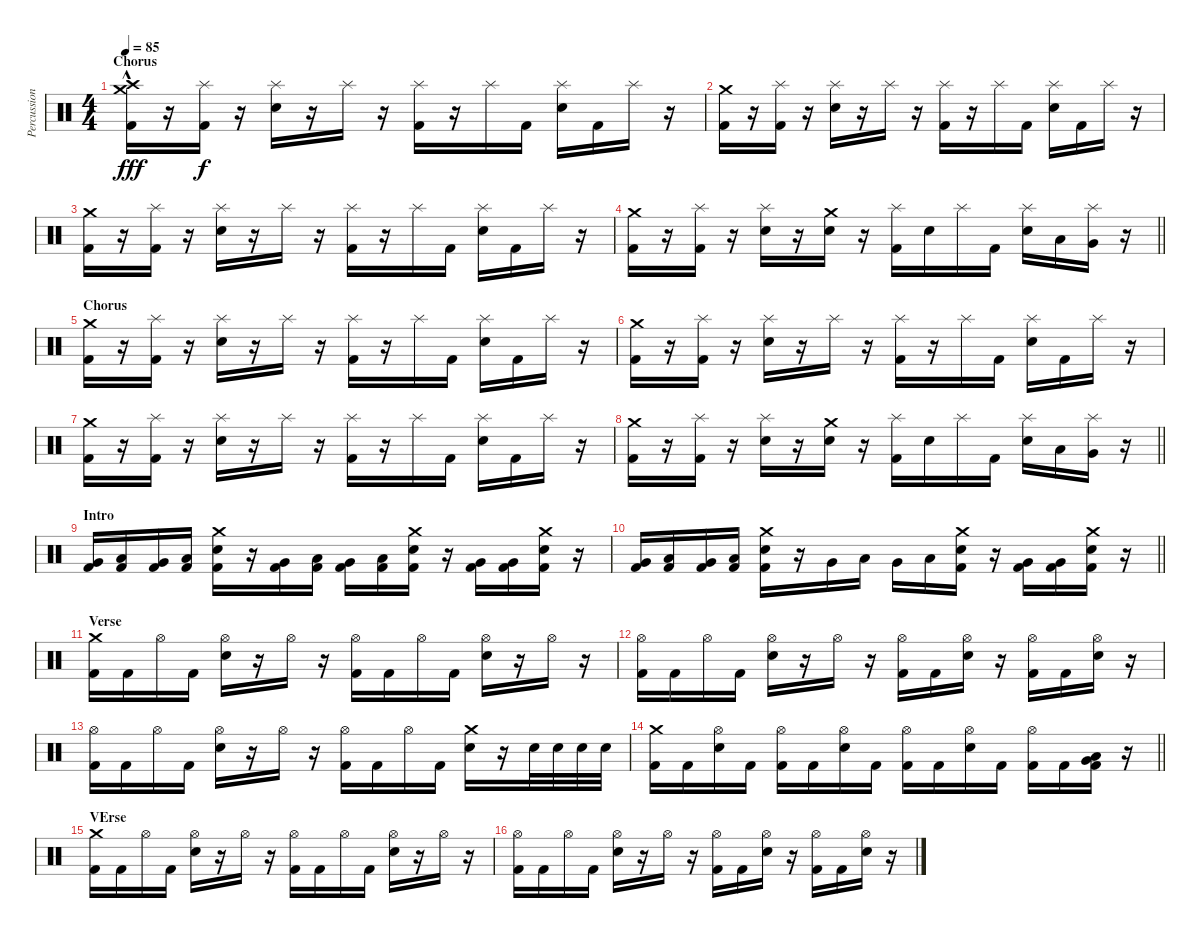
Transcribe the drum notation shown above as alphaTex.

\track ("Percussion" "Percussion") {instrument percussion}
\staff {score}
\articulation defaults
\ts (4 4)
\section ("" "Chorus")
\tempo 85
\clef neutral
\ks c
("Crash medium (hit)"{hac} "Crash high (hit)"{hac} "Kick (hit) 2").16{dy fff} r.16 ("Splash (hit)" "Kick (hit) 2").16{dy f} r.16 ("Splash (hit)" "Electric Snare (hit)").16 r.16 "Splash (hit)".16 r.16 ("Splash (hit)" "Kick (hit) 2").16 r.16 "Splash (hit)".16 "Kick (hit) 2".16 ("Splash (hit)" "Electric Snare (hit)").16 "Kick (hit) 2".16 "Splash (hit)".16 r.16 |
("Crash medium (hit)" "Kick (hit) 2").16 r.16 ("Splash (hit)" "Kick (hit) 2").16 r.16 ("Splash (hit)" "Electric Snare (hit)").16 r.16 "Splash (hit)".16 r.16 ("Splash (hit)" "Kick (hit) 2").16 r.16 "Splash (hit)".16 "Kick (hit) 2".16 ("Splash (hit)" "Electric Snare (hit)").16 "Kick (hit) 2".16 "Splash (hit)".16 r.16 |
("Crash medium (hit)" "Kick (hit) 2").16 r.16 ("Splash (hit)" "Kick (hit) 2").16 r.16 ("Splash (hit)" "Electric Snare (hit)").16 r.16 "Splash (hit)".16 r.16 ("Splash (hit)" "Kick (hit) 2").16 r.16 "Splash (hit)".16 "Kick (hit) 2".16 ("Splash (hit)" "Electric Snare (hit)").16 "Kick (hit) 2".16 "Splash (hit)".16 r.16 |
\barLineRight lightlight
("Crash medium (hit)" "Kick (hit) 2").16 r.16 ("Splash (hit)" "Kick (hit) 2").16 r.16 ("Splash (hit)" "Electric Snare (hit)").16 r.16 ("Crash medium (hit)" "Electric Snare (hit)").16 r.16 ("Splash (hit)" "Kick (hit) 2").16 "Electric Snare (hit)".16 "Splash (hit)".16 "Kick (hit) 2".16 ("Splash (hit)" "Electric Snare (hit)").16 "Low Tom (hit)".16 ("Splash (hit)" "Very Low Tom (hit)").16 r.16 |
\section ("" "Chorus")
("Crash medium (hit)" "Kick (hit) 2").16 r.16 ("Splash (hit)" "Kick (hit) 2").16 r.16 ("Splash (hit)" "Electric Snare (hit)").16 r.16 "Splash (hit)".16 r.16 ("Splash (hit)" "Kick (hit) 2").16 r.16 "Splash (hit)".16 "Kick (hit) 2".16 ("Splash (hit)" "Electric Snare (hit)").16 "Kick (hit) 2".16 "Splash (hit)".16 r.16 |
("Crash medium (hit)" "Kick (hit) 2").16 r.16 ("Splash (hit)" "Kick (hit) 2").16 r.16 ("Splash (hit)" "Electric Snare (hit)").16 r.16 "Splash (hit)".16 r.16 ("Splash (hit)" "Kick (hit) 2").16 r.16 "Splash (hit)".16 "Kick (hit) 2".16 ("Splash (hit)" "Electric Snare (hit)").16 "Kick (hit) 2".16 "Splash (hit)".16 r.16 |
("Crash medium (hit)" "Kick (hit) 2").16 r.16 ("Splash (hit)" "Kick (hit) 2").16 r.16 ("Splash (hit)" "Electric Snare (hit)").16 r.16 "Splash (hit)".16 r.16 ("Splash (hit)" "Kick (hit) 2").16 r.16 "Splash (hit)".16 "Kick (hit) 2".16 ("Splash (hit)" "Electric Snare (hit)").16 "Kick (hit) 2".16 "Splash (hit)".16 r.16 |
\barLineRight lightlight
("Crash medium (hit)" "Kick (hit) 2").16 r.16 ("Splash (hit)" "Kick (hit) 2").16 r.16 ("Splash (hit)" "Electric Snare (hit)").16 r.16 ("Crash medium (hit)" "Electric Snare (hit)").16 r.16 ("Splash (hit)" "Kick (hit) 2").16 "Electric Snare (hit)".16 "Splash (hit)".16 "Kick (hit) 2".16 ("Splash (hit)" "Electric Snare (hit)").16 "Low Tom (hit)".16 ("Splash (hit)" "Very Low Tom (hit)").16 r.16 |
\section ("" "Intro")
("Very Low Tom (hit)" "Kick (hit) 2").16 ("Low Tom (hit)" "Kick (hit) 2").16 ("Very Low Tom (hit)" "Kick (hit) 2").16 ("Low Floor Tom (hit)" "Kick (hit) 2").16 ("Crash medium (hit)" "Electric Snare (hit)" "Kick (hit) 2").16 r.16 ("Very Low Tom (hit)" "Kick (hit) 2").16 ("Low Tom (hit)" "Kick (hit) 2").16 ("Very Low Tom (hit)" "Kick (hit) 2").16 ("Low Floor Tom (hit)" "Kick (hit) 2").16 ("Crash medium (hit)" "Electric Snare (hit)" "Kick (hit) 2").16 r.16 ("Very Low Tom (hit)" "Kick (hit) 2").16 ("Very Low Tom (hit)" "Kick (hit) 2").16 ("Crash medium (hit)" "Electric Snare (hit)" "Kick (hit) 2").16 r.16 |
\barLineRight lightlight
("Very Low Tom (hit)" "Kick (hit) 2").16 ("Low Tom (hit)" "Kick (hit) 2").16 ("Very Low Tom (hit)" "Kick (hit) 2").16 ("Low Floor Tom (hit)" "Kick (hit) 2").16 ("Crash medium (hit)" "Electric Snare (hit)" "Kick (hit) 2").16 r.16 "Very Low Tom (hit)".16 "Low Tom (hit)".16 "Very Low Tom (hit)".16 "Low Floor Tom (hit)".16 ("Crash medium (hit)" "Electric Snare (hit)" "Kick (hit) 2").16 r.16 ("Very Low Tom (hit)" "Kick (hit) 2").16 ("Very Low Tom (hit)" "Kick (hit) 2").16 ("Crash medium (hit)" "Electric Snare (hit)" "Kick (hit) 2").16 r.16 |
\section ("" "Verse")
("Crash medium (hit)" "Kick (hit) 2").16 "Kick (hit) 2".16 "Hi-Hat (open)".16 "Kick (hit) 2".16 ("Hi-Hat (open)" "Electric Snare (hit)").16 r.16 "Hi-Hat (open)".16 r.16 ("Hi-Hat (open)" "Kick (hit) 2").16 "Kick (hit) 2".16 "Hi-Hat (open)".16 "Kick (hit) 2".16 ("Hi-Hat (open)" "Electric Snare (hit)").16 r.16 "Hi-Hat (open)".16 r.16 |
("Hi-Hat (open)" "Kick (hit) 2").16 "Kick (hit) 2".16 "Hi-Hat (open)".16 "Kick (hit) 2".16 ("Hi-Hat (open)" "Electric Snare (hit)").16 r.16 "Hi-Hat (open)".16 r.16 ("Hi-Hat (open)" "Kick (hit) 2").16 "Kick (hit) 2".16 ("Hi-Hat (open)" "Electric Snare (hit)").16 r.16 ("Hi-Hat (open)" "Kick (hit) 2").16 "Kick (hit) 2".16 ("Hi-Hat (open)" "Electric Snare (hit)").16 r.16 |
("Hi-Hat (open)" "Kick (hit) 2").16 "Kick (hit) 2".16 "Hi-Hat (open)".16 "Kick (hit) 2".16 ("Hi-Hat (open)" "Electric Snare (hit)").16 r.16 "Hi-Hat (open)".16 r.16 ("Hi-Hat (open)" "Kick (hit) 2").16 "Kick (hit) 2".16 "Hi-Hat (open)".16 "Kick (hit) 2".16 ("Crash medium (hit)" "Electric Snare (hit)").16 r.16 "Electric Snare (hit)".32 "Electric Snare (hit)".32 "Electric Snare (hit)".32 "Electric Snare (hit)".32 |
\barLineRight lightlight
("Crash medium (hit)" "Kick (hit) 2").16 "Kick (hit) 2".16 ("Hi-Hat (open)" "Electric Snare (hit)").16 "Kick (hit) 2".16 ("Hi-Hat (open)" "Kick (hit) 2").16 "Kick (hit) 2".16 ("Hi-Hat (open)" "Electric Snare (hit)").16 "Kick (hit) 2".16 ("Hi-Hat (open)" "Kick (hit) 2").16 "Kick (hit) 2".16 ("Hi-Hat (open)" "Electric Snare (hit)").16 "Kick (hit) 2".16 ("Hi-Hat (open)" "Kick (hit) 2").16 "Kick (hit) 2".16 ("Very Low Tom (hit)" "Low Tom (hit)" "Kick (hit) 2").16 r.16 |
\section ("" "VErse")
("Crash medium (hit)" "Kick (hit) 2").16 "Kick (hit) 2".16 "Hi-Hat (open)".16 "Kick (hit) 2".16 ("Hi-Hat (open)" "Electric Snare (hit)").16 r.16 "Hi-Hat (open)".16 r.16 ("Hi-Hat (open)" "Kick (hit) 2").16 "Kick (hit) 2".16 "Hi-Hat (open)".16 "Kick (hit) 2".16 ("Hi-Hat (open)" "Electric Snare (hit)").16 r.16 "Hi-Hat (open)".16 r.16 |
("Hi-Hat (open)" "Kick (hit) 2").16 "Kick (hit) 2".16 "Hi-Hat (open)".16 "Kick (hit) 2".16 ("Hi-Hat (open)" "Electric Snare (hit)").16 r.16 "Hi-Hat (open)".16 r.16 ("Hi-Hat (open)" "Kick (hit) 2").16 "Kick (hit) 2".16 ("Hi-Hat (open)" "Electric Snare (hit)").16 r.16 ("Hi-Hat (open)" "Kick (hit) 2").16 "Kick (hit) 2".16 ("Hi-Hat (open)" "Electric Snare (hit)").16 r.16
